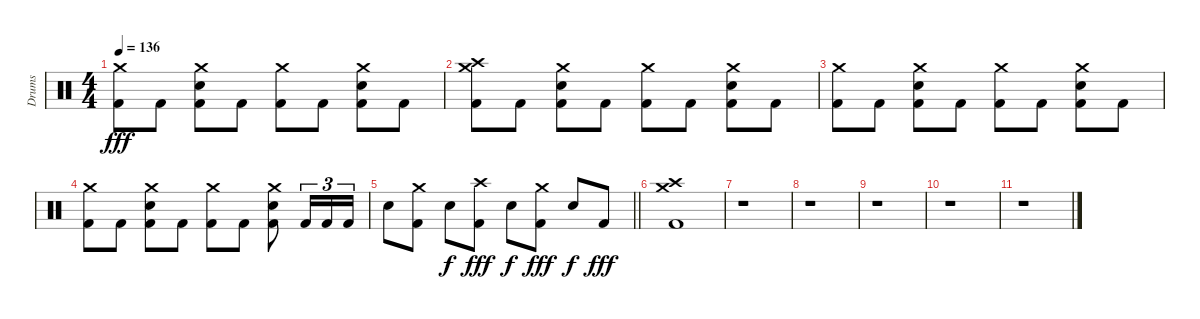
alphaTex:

\track ("Drums" "Drums") {instrument percussion}
\staff {score}
\articulation defaults
\ts (4 4)
\tempo 136
\clef neutral
\ks c
("Crash medium (hit)" "Kick (hit) 2").8{dy fff} "Kick (hit) 2".8 ("Crash medium (hit)" "Electric Snare (hit)" "Kick (hit) 2").8 "Kick (hit) 2".8 ("Crash medium (hit)" "Kick (hit) 2").8 "Kick (hit) 2".8 ("Crash medium (hit)" "Electric Snare (hit)" "Kick (hit) 2").8 "Kick (hit) 2".8 |
("Crash medium (hit)" "Crash high (hit)" "Kick (hit) 2").8 "Kick (hit) 2".8 ("Crash medium (hit)" "Electric Snare (hit)" "Kick (hit) 2").8 "Kick (hit) 2".8 ("Crash medium (hit)" "Kick (hit) 2").8 "Kick (hit) 2".8 ("Crash medium (hit)" "Electric Snare (hit)" "Kick (hit) 2").8 "Kick (hit) 2".8 |
("Crash medium (hit)" "Kick (hit) 2").8 "Kick (hit) 2".8 ("Crash medium (hit)" "Electric Snare (hit)" "Kick (hit) 2").8 "Kick (hit) 2".8 ("Crash medium (hit)" "Kick (hit) 2").8 "Kick (hit) 2".8 ("Crash medium (hit)" "Electric Snare (hit)" "Kick (hit) 2").8 "Kick (hit) 2".8 |
("Crash medium (hit)" "Kick (hit) 2").8 "Kick (hit) 2".8 ("Crash medium (hit)" "Electric Snare (hit)" "Kick (hit) 2").8 "Kick (hit) 2".8 ("Crash medium (hit)" "Kick (hit) 2").8 "Kick (hit) 2".8 ("Crash medium (hit)" "Electric Snare (hit)" "Kick (hit) 2").8 "Kick (hit) 2".16{tu (3 2)} "Kick (hit) 2".16{tu (3 2)} "Kick (hit) 2".16{tu (3 2)} |
\barLineRight lightlight "Electric Snare (hit)".8
("Crash medium (hit)" "Kick (hit) 2").8 "Electric Snare (hit)".8{dy f} ("Crash high (hit)" "Kick (hit) 2").8{dy fff} "Electric Snare (hit)".8{dy f} ("Crash medium (hit)" "Kick (hit) 2").8{dy fff} "Electric Snare (hit)".8{dy f} "Kick (hit) 2".8{dy fff} |
("Crash medium (hit)" "Crash high (hit)" "Kick (hit) 2").1 |
r.1 |
r.1 |
r.1 |
r.1 |
r.1
